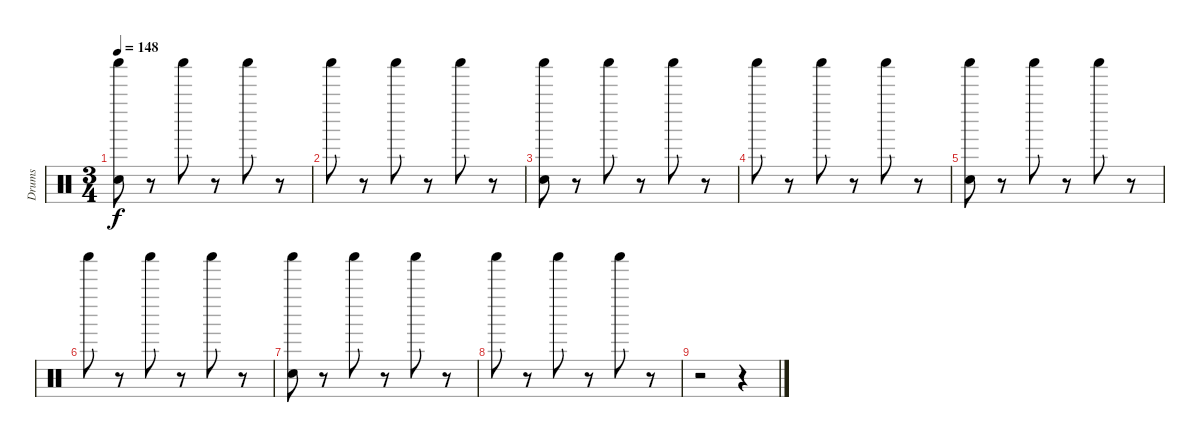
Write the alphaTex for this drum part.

\track ("Drums" "Drums") {instrument percussion}
\staff {score}
\articulation defaults
\ts (3 4)
\tempo 148
\clef neutral
\ks c
("Shaker (hit)" "Hand Clap (hit)").8{dy f} r.8 "Shaker (hit)".8 r.8 "Shaker (hit)".8 r.8 |
"Shaker (hit)".8 r.8 "Shaker (hit)".8 r.8 "Shaker (hit)".8 r.8 |
("Shaker (hit)" "Hand Clap (hit)").8 r.8 "Shaker (hit)".8 r.8 "Shaker (hit)".8 r.8 |
"Shaker (hit)".8 r.8 "Shaker (hit)".8 r.8 "Shaker (hit)".8 r.8 |
("Shaker (hit)" "Hand Clap (hit)").8 r.8 "Shaker (hit)".8 r.8 "Shaker (hit)".8 r.8 |
"Shaker (hit)".8 r.8 "Shaker (hit)".8 r.8 "Shaker (hit)".8 r.8 |
("Shaker (hit)" "Hand Clap (hit)").8 r.8 "Shaker (hit)".8 r.8 "Shaker (hit)".8 r.8 |
"Shaker (hit)".8 r.8 "Shaker (hit)".8 r.8 "Shaker (hit)".8 r.8 |
r.2 r.4
